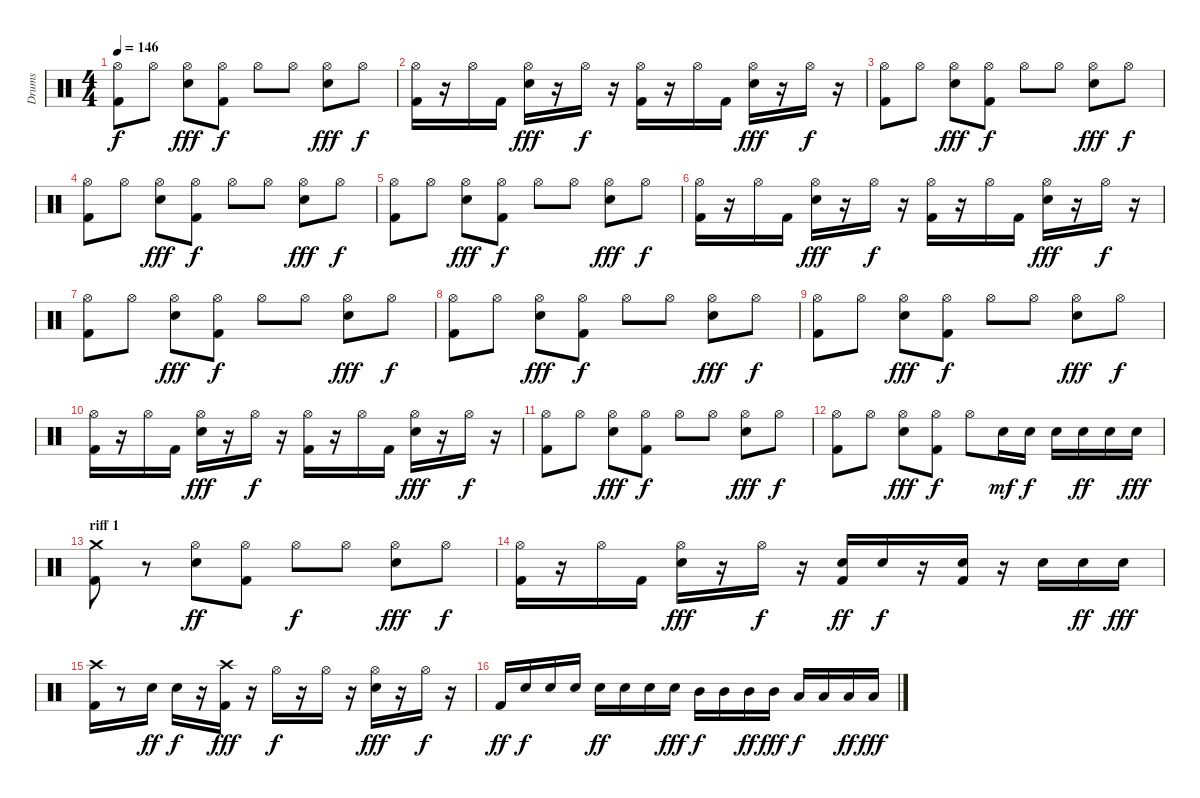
\track ("Drums" "Drums") {instrument percussion}
\staff {score}
\articulation defaults
\ts (4 4)
\tempo 146
\clef neutral
\ks c
("Kick (hit) 2" "Hi-Hat (open)").8{dy f} "Hi-Hat (open)".8 ("Snare (hit) 2" "Hi-Hat (open)").8{dy fff} ("Kick (hit) 2" "Hi-Hat (open)").8{dy f} "Hi-Hat (open)".8 "Hi-Hat (open)".8 ("Snare (hit) 2" "Hi-Hat (open)").8{dy fff} "Hi-Hat (open)".8{dy f} |
("Kick (hit) 2" "Hi-Hat (open)").16 r.16 "Hi-Hat (open)".16 "Kick (hit) 2".16 ("Snare (hit) 2" "Hi-Hat (open)").16{dy fff} r.16 "Hi-Hat (open)".16{dy f} r.16 ("Kick (hit) 2" "Hi-Hat (open)").16 r.16 "Hi-Hat (open)".16 "Kick (hit) 2".16 ("Snare (hit) 2" "Hi-Hat (open)").16{dy fff} r.16 "Hi-Hat (open)".16{dy f} r.16 |
("Kick (hit) 2" "Hi-Hat (open)").8 "Hi-Hat (open)".8 ("Snare (hit) 2" "Hi-Hat (open)").8{dy fff} ("Kick (hit) 2" "Hi-Hat (open)").8{dy f} "Hi-Hat (open)".8 "Hi-Hat (open)".8 ("Snare (hit) 2" "Hi-Hat (open)").8{dy fff} "Hi-Hat (open)".8{dy f} |
("Kick (hit) 2" "Hi-Hat (open)").8 "Hi-Hat (open)".8 ("Snare (hit) 2" "Hi-Hat (open)").8{dy fff} ("Kick (hit) 2" "Hi-Hat (open)").8{dy f} "Hi-Hat (open)".8 "Hi-Hat (open)".8 ("Snare (hit) 2" "Hi-Hat (open)").8{dy fff} "Hi-Hat (open)".8{dy f} |
("Kick (hit) 2" "Hi-Hat (open)").8 "Hi-Hat (open)".8 ("Snare (hit) 2" "Hi-Hat (open)").8{dy fff} ("Kick (hit) 2" "Hi-Hat (open)").8{dy f} "Hi-Hat (open)".8 "Hi-Hat (open)".8 ("Snare (hit) 2" "Hi-Hat (open)").8{dy fff} "Hi-Hat (open)".8{dy f} |
("Kick (hit) 2" "Hi-Hat (open)").16 r.16 "Hi-Hat (open)".16 "Kick (hit) 2".16 ("Snare (hit) 2" "Hi-Hat (open)").16{dy fff} r.16 "Hi-Hat (open)".16{dy f} r.16 ("Kick (hit) 2" "Hi-Hat (open)").16 r.16 "Hi-Hat (open)".16 "Kick (hit) 2".16 ("Snare (hit) 2" "Hi-Hat (open)").16{dy fff} r.16 "Hi-Hat (open)".16{dy f} r.16 |
("Kick (hit) 2" "Hi-Hat (open)").8 "Hi-Hat (open)".8 ("Snare (hit) 2" "Hi-Hat (open)").8{dy fff} ("Kick (hit) 2" "Hi-Hat (open)").8{dy f} "Hi-Hat (open)".8 "Hi-Hat (open)".8 ("Snare (hit) 2" "Hi-Hat (open)").8{dy fff} "Hi-Hat (open)".8{dy f} |
("Kick (hit) 2" "Hi-Hat (open)").8 "Hi-Hat (open)".8 ("Snare (hit) 2" "Hi-Hat (open)").8{dy fff} ("Kick (hit) 2" "Hi-Hat (open)").8{dy f} "Hi-Hat (open)".8 "Hi-Hat (open)".8 ("Snare (hit) 2" "Hi-Hat (open)").8{dy fff} "Hi-Hat (open)".8{dy f} |
("Kick (hit) 2" "Hi-Hat (open)").8 "Hi-Hat (open)".8 ("Snare (hit) 2" "Hi-Hat (open)").8{dy fff} ("Kick (hit) 2" "Hi-Hat (open)").8{dy f} "Hi-Hat (open)".8 "Hi-Hat (open)".8 ("Snare (hit) 2" "Hi-Hat (open)").8{dy fff} "Hi-Hat (open)".8{dy f} |
("Kick (hit) 2" "Hi-Hat (open)").16 r.16 "Hi-Hat (open)".16 "Kick (hit) 2".16 ("Snare (hit) 2" "Hi-Hat (open)").16{dy fff} r.16 "Hi-Hat (open)".16{dy f} r.16 ("Kick (hit) 2" "Hi-Hat (open)").16 r.16 "Hi-Hat (open)".16 "Kick (hit) 2".16 ("Snare (hit) 2" "Hi-Hat (open)").16{dy fff} r.16 "Hi-Hat (open)".16{dy f} r.16 |
("Kick (hit) 2" "Hi-Hat (open)").8 "Hi-Hat (open)".8 ("Snare (hit) 2" "Hi-Hat (open)").8{dy fff} ("Kick (hit) 2" "Hi-Hat (open)").8{dy f} "Hi-Hat (open)".8 "Hi-Hat (open)".8 ("Snare (hit) 2" "Hi-Hat (open)").8{dy fff} "Hi-Hat (open)".8{dy f} |
("Kick (hit) 2" "Hi-Hat (open)").8 "Hi-Hat (open)".8 ("Snare (hit) 2" "Hi-Hat (open)").8{dy fff} ("Kick (hit) 2" "Hi-Hat (open)").8{dy f} "Hi-Hat (open)".8 "Snare (hit) 2".16{dy mf} "Snare (hit) 2".16{dy f} "Snare (hit) 2".16 "Snare (hit) 2".16{dy ff} "Snare (hit) 2".16 "Snare (hit) 2".16{dy fff} |
\section ("" "riff 1")
("Kick (hit) 2" "Crash medium (hit)").8 r.8 ("Hi-Hat (open)" "Snare (hit) 2").8{dy ff} ("Hi-Hat (open)" "Kick (hit) 2").8 "Hi-Hat (open)".8{dy f} "Hi-Hat (open)".8 ("Snare (hit) 2" "Hi-Hat (open)").8{dy fff} "Hi-Hat (open)".8{dy f} |
("Kick (hit) 2" "Hi-Hat (open)").16 r.16 "Hi-Hat (open)".16 "Kick (hit) 2".16 ("Snare (hit) 2" "Hi-Hat (open)").16{dy fff} r.16 "Hi-Hat (open)".16{dy f} r.16 ("Snare (hit) 2" "Kick (hit) 2").16{dy ff} "Snare (hit) 2".16{dy f} r.16 ("Snare (hit) 2" "Kick (hit) 2").16 r.16 "Snare (hit) 2".16 "Snare (hit) 2".16{dy ff} "Snare (hit) 2".16{dy fff} |
("Kick (hit) 2" "Crash high (hit)").16 r.8 "Snare (hit) 2".16{dy ff} "Snare (hit) 2".16{dy f} r.16 ("Kick (hit) 2" "Crash high (hit)").16{dy fff} r.16 "Hi-Hat (open)".16{dy f} r.16 "Hi-Hat (open)".16 r.16 ("Snare (hit) 2" "Hi-Hat (open)").16{dy fff} r.16 "Hi-Hat (open)".16{dy f} r.16 |
"Kick (hit) 2".16{dy ff} "Snare (hit) 2".16{dy f} "Snare (hit) 2".16 "Snare (hit) 2".16 "Snare (hit) 2".16{dy ff} "Snare (hit) 2".16 "Snare (hit) 2".16 "Snare (hit) 2".16{dy fff} "Mid Tom (hit)".16{dy f} "Mid Tom (hit)".16 "Mid Tom (hit)".16{dy ff} "Mid Tom (hit)".16{dy fff} "Low Tom (hit)".16{dy f} "Low Tom (hit)".16 "Low Tom (hit)".16{dy ff} "Low Tom (hit)".16{dy fff}
